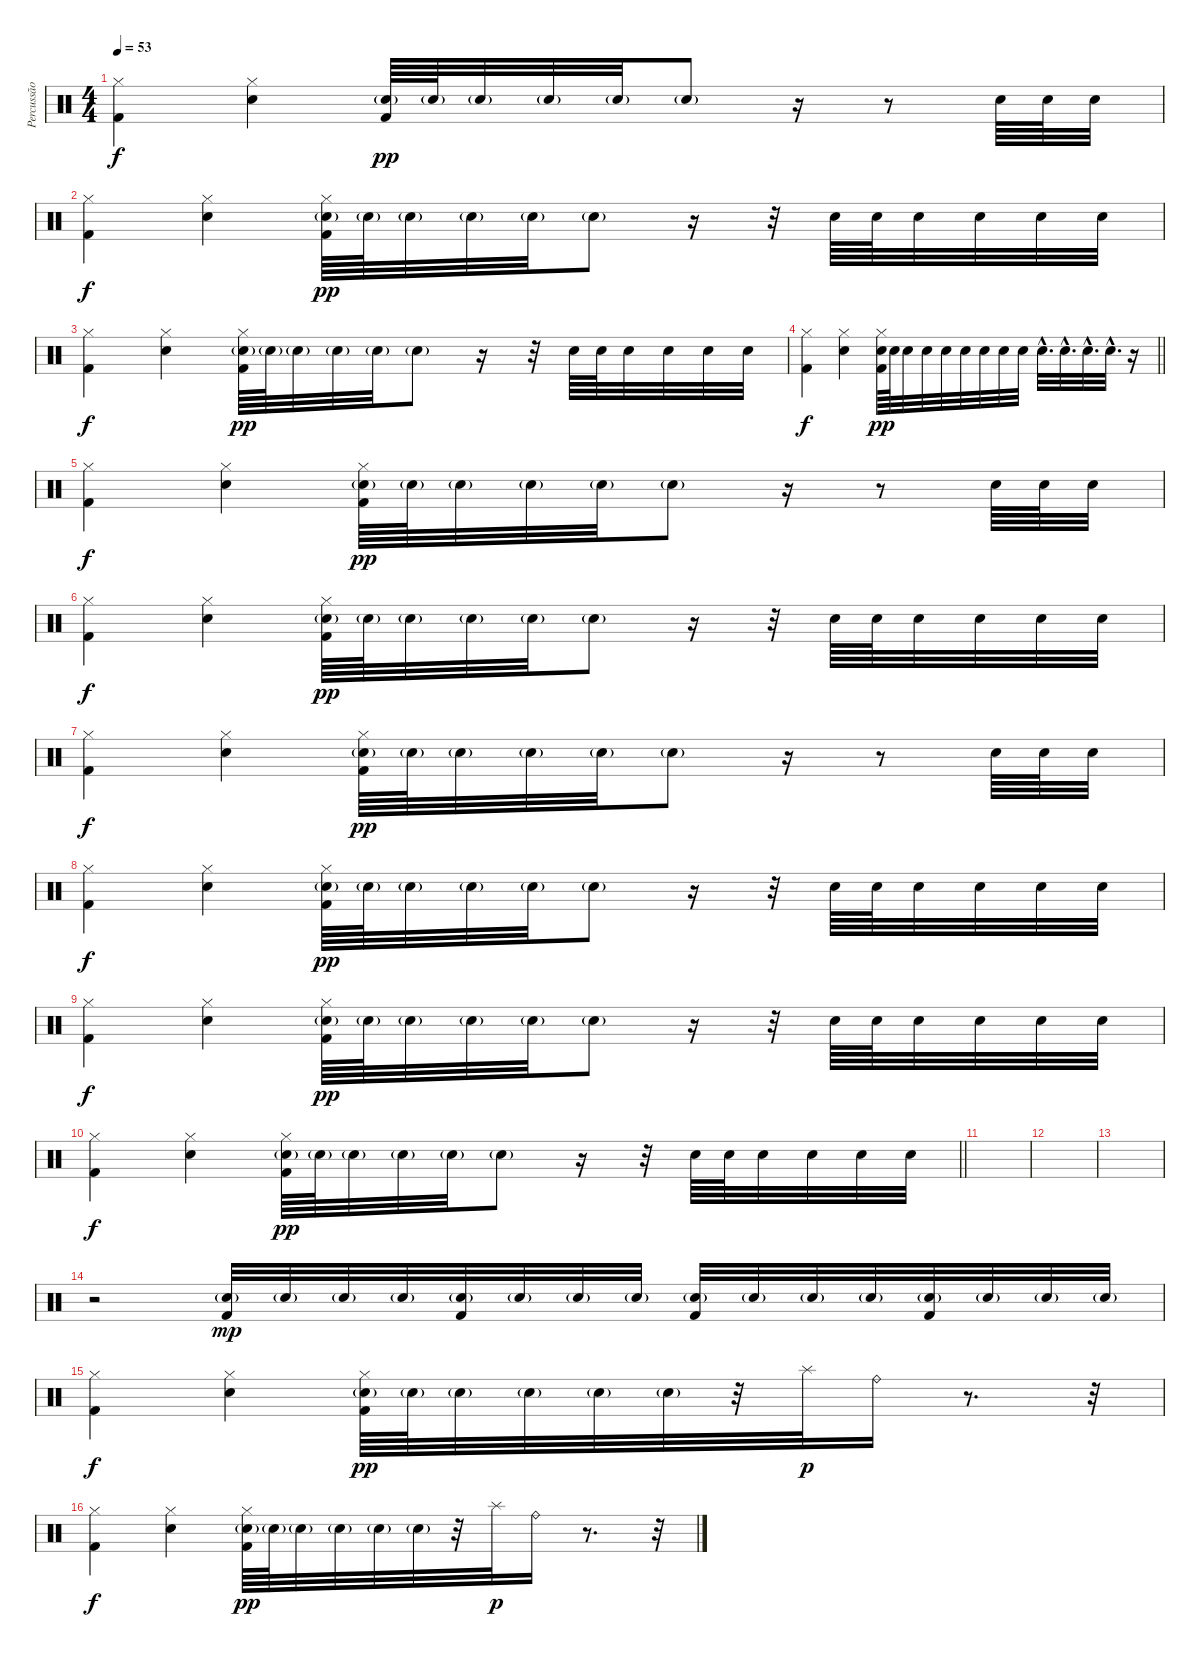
\track ("Percussão" "Percussão") {instrument percussion}
\staff {score}
\articulation defaults
\ts (4 4)
\tempo 53
\clef neutral
\ks c
("Hi-Hat (closed)" "Kick (hit) 2").4{dy f} ("Hi-Hat (closed)" "Electric Snare (hit)").4 ("Electric Snare (hit)"{g} "Kick (hit) 2").64{dy pp} "Electric Snare (hit)"{g}.64 "Electric Snare (hit)"{g}.32 "Electric Snare (hit)"{g}.32 "Electric Snare (hit)"{g}.32 "Electric Snare (hit)"{g}.8 r.16 r.8 "Electric Snare (hit)".64 "Electric Snare (hit)".64 "Electric Snare (hit)".32 |
("Hi-Hat (closed)" "Kick (hit) 2").4{dy f} ("Hi-Hat (closed)" "Electric Snare (hit)").4 ("Hi-Hat (closed)" "Electric Snare (hit)"{g} "Kick (hit) 2").64{dy pp} "Electric Snare (hit)"{g}.64 "Electric Snare (hit)"{g}.32 "Electric Snare (hit)"{g}.32 "Electric Snare (hit)"{g}.32 "Electric Snare (hit)"{g}.8 r.16 r.32 "Electric Snare (hit)".64 "Electric Snare (hit)".64 "Electric Snare (hit)".32 "Electric Snare (hit)".32 "Electric Snare (hit)".32 "Electric Snare (hit)".32 |
("Hi-Hat (closed)" "Kick (hit) 2").4{dy f} ("Hi-Hat (closed)" "Electric Snare (hit)").4 ("Hi-Hat (closed)" "Electric Snare (hit)"{g} "Kick (hit) 2").64{dy pp} "Electric Snare (hit)"{g}.64 "Electric Snare (hit)"{g}.32 "Electric Snare (hit)"{g}.32 "Electric Snare (hit)"{g}.32 "Electric Snare (hit)"{g}.8 r.16 r.32 "Electric Snare (hit)".64 "Electric Snare (hit)".64 "Electric Snare (hit)".32 "Electric Snare (hit)".32 "Electric Snare (hit)".32 "Electric Snare (hit)".32 |
\barLineRight lightlight
("Hi-Hat (closed)" "Kick (hit) 2").4{dy f} ("Hi-Hat (closed)" "Electric Snare (hit)").4 ("Hi-Hat (closed)" "Electric Snare (hit)" "Kick (hit) 2").64{dy pp} "Electric Snare (hit)".64 "Electric Snare (hit)".32 "Electric Snare (hit)".32 "Electric Snare (hit)".32 "Electric Snare (hit)".32 "Electric Snare (hit)".32 "Electric Snare (hit)".32 "Electric Snare (hit)".32 "Electric Snare (hit)"{hac}.32{d} "Electric Snare (hit)"{hac}.32{d} "Electric Snare (hit)"{hac}.32{d} "Electric Snare (hit)"{hac}.32{d} r.16 |
("Hi-Hat (closed)" "Kick (hit) 2").4{dy f} ("Hi-Hat (closed)" "Electric Snare (hit)").4 ("Hi-Hat (closed)" "Electric Snare (hit)"{g} "Kick (hit) 2").64{dy pp} "Electric Snare (hit)"{g}.64 "Electric Snare (hit)"{g}.32 "Electric Snare (hit)"{g}.32 "Electric Snare (hit)"{g}.32 "Electric Snare (hit)"{g}.8 r.16 r.8 "Electric Snare (hit)".64 "Electric Snare (hit)".64 "Electric Snare (hit)".32 |
("Hi-Hat (closed)" "Kick (hit) 2").4{dy f} ("Hi-Hat (closed)" "Electric Snare (hit)").4 ("Hi-Hat (closed)" "Electric Snare (hit)"{g} "Kick (hit) 2").64{dy pp} "Electric Snare (hit)"{g}.64 "Electric Snare (hit)"{g}.32 "Electric Snare (hit)"{g}.32 "Electric Snare (hit)"{g}.32 "Electric Snare (hit)"{g}.8 r.16 r.32 "Electric Snare (hit)".64 "Electric Snare (hit)".64 "Electric Snare (hit)".32 "Electric Snare (hit)".32 "Electric Snare (hit)".32 "Electric Snare (hit)".32 |
("Hi-Hat (closed)" "Kick (hit) 2").4{dy f} ("Hi-Hat (closed)" "Electric Snare (hit)").4 ("Hi-Hat (closed)" "Electric Snare (hit)"{g} "Kick (hit) 2").64{dy pp} "Electric Snare (hit)"{g}.64 "Electric Snare (hit)"{g}.32 "Electric Snare (hit)"{g}.32 "Electric Snare (hit)"{g}.32 "Electric Snare (hit)"{g}.8 r.16 r.8 "Electric Snare (hit)".64 "Electric Snare (hit)".64 "Electric Snare (hit)".32 |
("Hi-Hat (closed)" "Kick (hit) 2").4{dy f} ("Hi-Hat (closed)" "Electric Snare (hit)").4 ("Hi-Hat (closed)" "Electric Snare (hit)"{g} "Kick (hit) 2").64{dy pp} "Electric Snare (hit)"{g}.64 "Electric Snare (hit)"{g}.32 "Electric Snare (hit)"{g}.32 "Electric Snare (hit)"{g}.32 "Electric Snare (hit)"{g}.8 r.16 r.32 "Electric Snare (hit)".64 "Electric Snare (hit)".64 "Electric Snare (hit)".32 "Electric Snare (hit)".32 "Electric Snare (hit)".32 "Electric Snare (hit)".32 |
("Hi-Hat (closed)" "Kick (hit) 2").4{dy f} ("Hi-Hat (closed)" "Electric Snare (hit)").4 ("Hi-Hat (closed)" "Electric Snare (hit)"{g} "Kick (hit) 2").64{dy pp} "Electric Snare (hit)"{g}.64 "Electric Snare (hit)"{g}.32 "Electric Snare (hit)"{g}.32 "Electric Snare (hit)"{g}.32 "Electric Snare (hit)"{g}.8 r.16 r.32 "Electric Snare (hit)".64 "Electric Snare (hit)".64 "Electric Snare (hit)".32 "Electric Snare (hit)".32 "Electric Snare (hit)".32 "Electric Snare (hit)".32 |
\barLineRight lightlight
("Hi-Hat (closed)" "Kick (hit) 2").4{dy f} ("Hi-Hat (closed)" "Electric Snare (hit)").4 ("Hi-Hat (closed)" "Electric Snare (hit)"{g} "Kick (hit) 2").64{dy pp} "Electric Snare (hit)"{g}.64 "Electric Snare (hit)"{g}.32 "Electric Snare (hit)"{g}.32 "Electric Snare (hit)"{g}.32 "Electric Snare (hit)"{g}.8 r.16 r.32 "Electric Snare (hit)".64 "Electric Snare (hit)".64 "Electric Snare (hit)".32 "Electric Snare (hit)".32 "Electric Snare (hit)".32 "Electric Snare (hit)".32 |
|
|
|
r.2 ("Electric Snare (hit)"{g} "Kick (hit) 2").32{dy mp} "Electric Snare (hit)"{g}.32 "Electric Snare (hit)"{g}.32 "Electric Snare (hit)"{g}.32 ("Electric Snare (hit)"{g} "Kick (hit) 2").32 "Electric Snare (hit)"{g}.32 "Electric Snare (hit)"{g}.32 "Electric Snare (hit)"{g}.32 ("Electric Snare (hit)"{g} "Kick (hit) 2").32 "Electric Snare (hit)"{g}.32 "Electric Snare (hit)"{g}.32 "Electric Snare (hit)"{g}.32 ("Electric Snare (hit)"{g} "Kick (hit) 2").32 "Electric Snare (hit)"{g}.32 "Electric Snare (hit)"{g}.32 "Electric Snare (hit)"{g}.32 |
("Hi-Hat (closed)" "Kick (hit) 2").4{dy f} ("Hi-Hat (closed)" "Electric Snare (hit)").4 ("Hi-Hat (closed)" "Electric Snare (hit)"{g} "Kick (hit) 2").64{dy pp} "Electric Snare (hit)"{g}.64 "Electric Snare (hit)"{g}.32 "Electric Snare (hit)"{g}.32 "Electric Snare (hit)"{g}.32 "Electric Snare (hit)"{g}.32 r.32 "Splash (hit)".32{dy p} "Ride (bell)".16 r.8{d} r.32 |
("Hi-Hat (closed)" "Kick (hit) 2").4{dy f} ("Hi-Hat (closed)" "Electric Snare (hit)").4 ("Hi-Hat (closed)" "Electric Snare (hit)"{g} "Kick (hit) 2").64{dy pp} "Electric Snare (hit)"{g}.64 "Electric Snare (hit)"{g}.32 "Electric Snare (hit)"{g}.32 "Electric Snare (hit)"{g}.32 "Electric Snare (hit)"{g}.32 r.32 "Splash (hit)".32{dy p} "Ride (bell)".16 r.8{d} r.32
